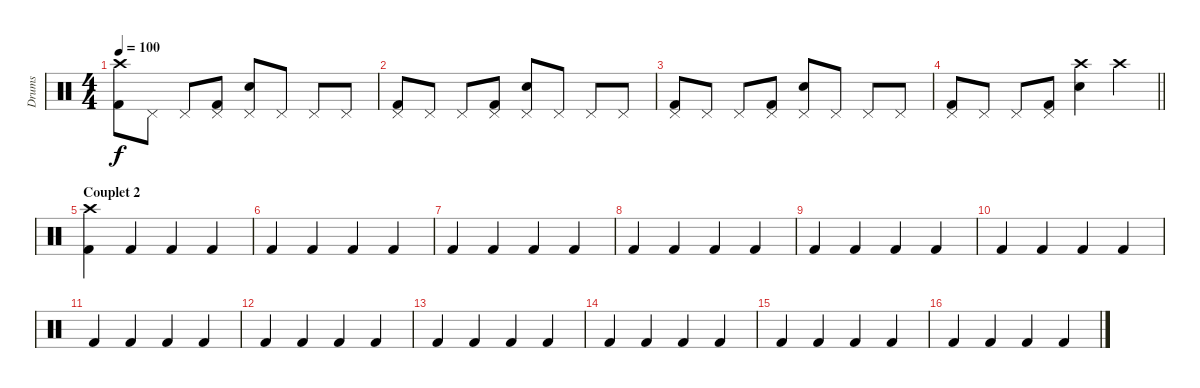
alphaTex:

\track ("Drums" "Drums") {instrument percussion}
\staff {score}
\articulation defaults
\ts (4 4)
\tempo 100
\clef neutral
\ks c
("Crash high (hit)" "Kick (hit) 2").8{dy f} "Pedal Hi-Hat (hit)".8 "Pedal Hi-Hat (hit)".8 ("Pedal Hi-Hat (hit)" "Kick (hit) 2").8 ("Pedal Hi-Hat (hit)" "Snare (hit) 2").8 "Pedal Hi-Hat (hit)".8 "Pedal Hi-Hat (hit)".8 "Pedal Hi-Hat (hit)".8 |
("Pedal Hi-Hat (hit)" "Kick (hit) 2").8 "Pedal Hi-Hat (hit)".8 "Pedal Hi-Hat (hit)".8 ("Pedal Hi-Hat (hit)" "Kick (hit) 2").8 ("Pedal Hi-Hat (hit)" "Snare (hit) 2").8 "Pedal Hi-Hat (hit)".8 "Pedal Hi-Hat (hit)".8 "Pedal Hi-Hat (hit)".8 |
("Pedal Hi-Hat (hit)" "Kick (hit) 2").8 "Pedal Hi-Hat (hit)".8 "Pedal Hi-Hat (hit)".8 ("Pedal Hi-Hat (hit)" "Kick (hit) 2").8 ("Pedal Hi-Hat (hit)" "Snare (hit) 2").8 "Pedal Hi-Hat (hit)".8 "Pedal Hi-Hat (hit)".8 "Pedal Hi-Hat (hit)".8 |
\barLineRight lightlight
("Pedal Hi-Hat (hit)" "Kick (hit) 2").8 "Pedal Hi-Hat (hit)".8 "Pedal Hi-Hat (hit)".8 ("Pedal Hi-Hat (hit)" "Kick (hit) 2").8 ("Crash high (hit)" "Snare (hit) 2").4 "Crash high (hit)".4 |
\section ("" "Couplet 2")
("Crash high (hit)" "Kick (hit) 2").4 "Kick (hit) 2".4 "Kick (hit) 2".4 "Kick (hit) 2".4 |
"Kick (hit) 2".4 "Kick (hit) 2".4 "Kick (hit) 2".4 "Kick (hit) 2".4 |
"Kick (hit) 2".4 "Kick (hit) 2".4 "Kick (hit) 2".4 "Kick (hit) 2".4 |
"Kick (hit) 2".4 "Kick (hit) 2".4 "Kick (hit) 2".4 "Kick (hit) 2".4 |
"Kick (hit) 2".4 "Kick (hit) 2".4 "Kick (hit) 2".4 "Kick (hit) 2".4 |
"Kick (hit) 2".4 "Kick (hit) 2".4 "Kick (hit) 2".4 "Kick (hit) 2".4 |
"Kick (hit) 2".4 "Kick (hit) 2".4 "Kick (hit) 2".4 "Kick (hit) 2".4 |
"Kick (hit) 2".4 "Kick (hit) 2".4 "Kick (hit) 2".4 "Kick (hit) 2".4 |
"Kick (hit) 2".4 "Kick (hit) 2".4 "Kick (hit) 2".4 "Kick (hit) 2".4 |
"Kick (hit) 2".4 "Kick (hit) 2".4 "Kick (hit) 2".4 "Kick (hit) 2".4 |
"Kick (hit) 2".4 "Kick (hit) 2".4 "Kick (hit) 2".4 "Kick (hit) 2".4 |
"Kick (hit) 2".4 "Kick (hit) 2".4 "Kick (hit) 2".4 "Kick (hit) 2".4
